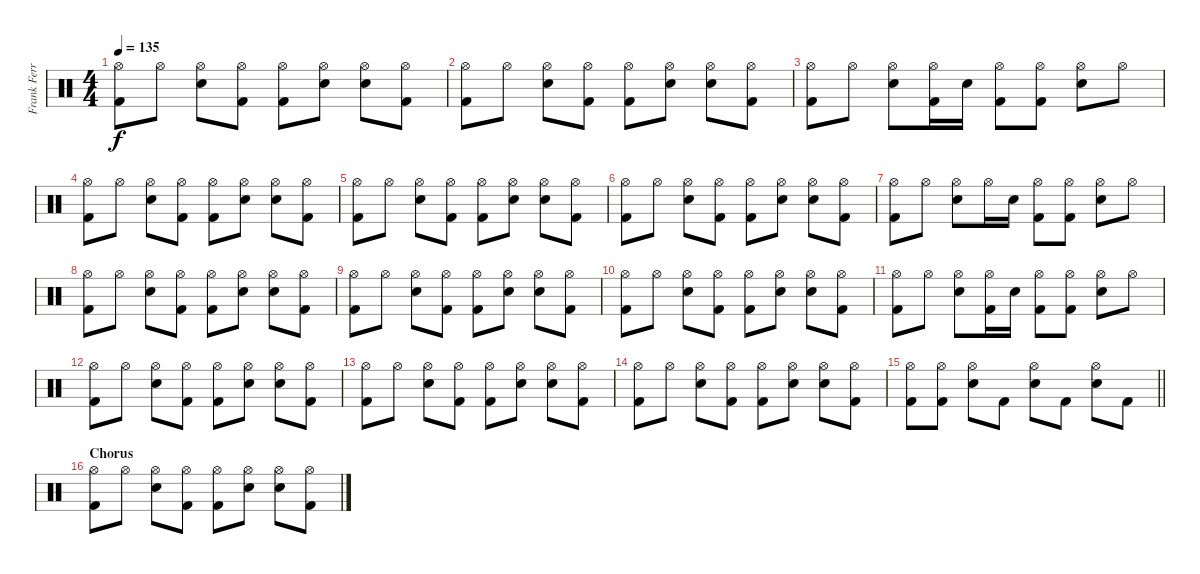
\track ("Frank Ferrer" "Frank Ferr") {instrument percussion}
\staff {score}
\articulation defaults
\ts (4 4)
\tempo 135
\clef neutral
\ks c
("Hi-Hat (open)" "Kick (hit) 2").8{dy f} "Hi-Hat (open)".8 ("Hi-Hat (open)" "Electric Snare (hit)").8 ("Hi-Hat (open)" "Kick (hit) 2").8 ("Hi-Hat (open)" "Kick (hit) 2").8 ("Hi-Hat (open)" "Electric Snare (hit)").8 ("Hi-Hat (open)" "Electric Snare (hit)").8 ("Hi-Hat (open)" "Kick (hit) 2").8 |
("Hi-Hat (open)" "Kick (hit) 2").8 "Hi-Hat (open)".8 ("Hi-Hat (open)" "Electric Snare (hit)").8 ("Hi-Hat (open)" "Kick (hit) 2").8 ("Hi-Hat (open)" "Kick (hit) 2").8 ("Hi-Hat (open)" "Electric Snare (hit)").8 ("Hi-Hat (open)" "Electric Snare (hit)").8 ("Hi-Hat (open)" "Kick (hit) 2").8 |
("Hi-Hat (open)" "Kick (hit) 2").8 "Hi-Hat (open)".8 ("Hi-Hat (open)" "Electric Snare (hit)").8 ("Hi-Hat (open)" "Kick (hit) 2").16 "Electric Snare (hit)".16 ("Hi-Hat (open)" "Kick (hit) 2").8 ("Hi-Hat (open)" "Kick (hit) 2").8 ("Hi-Hat (open)" "Electric Snare (hit)").8 "Hi-Hat (open)".8 |
("Hi-Hat (open)" "Kick (hit) 2").8 "Hi-Hat (open)".8 ("Hi-Hat (open)" "Electric Snare (hit)").8 ("Hi-Hat (open)" "Kick (hit) 2").8 ("Hi-Hat (open)" "Kick (hit) 2").8 ("Hi-Hat (open)" "Electric Snare (hit)").8 ("Hi-Hat (open)" "Electric Snare (hit)").8 ("Hi-Hat (open)" "Kick (hit) 2").8 |
("Hi-Hat (open)" "Kick (hit) 2").8 "Hi-Hat (open)".8 ("Hi-Hat (open)" "Electric Snare (hit)").8 ("Hi-Hat (open)" "Kick (hit) 2").8 ("Hi-Hat (open)" "Kick (hit) 2").8 ("Hi-Hat (open)" "Electric Snare (hit)").8 ("Hi-Hat (open)" "Electric Snare (hit)").8 ("Hi-Hat (open)" "Kick (hit) 2").8 |
("Hi-Hat (open)" "Kick (hit) 2").8 "Hi-Hat (open)".8 ("Hi-Hat (open)" "Electric Snare (hit)").8 ("Hi-Hat (open)" "Kick (hit) 2").8 ("Hi-Hat (open)" "Kick (hit) 2").8 ("Hi-Hat (open)" "Electric Snare (hit)").8 ("Hi-Hat (open)" "Electric Snare (hit)").8 ("Hi-Hat (open)" "Kick (hit) 2").8 |
("Hi-Hat (open)" "Kick (hit) 2").8 "Hi-Hat (open)".8 ("Hi-Hat (open)" "Electric Snare (hit)").8 "Hi-Hat (open)".16 "Electric Snare (hit)".16 ("Hi-Hat (open)" "Kick (hit) 2").8 ("Hi-Hat (open)" "Kick (hit) 2").8 ("Hi-Hat (open)" "Electric Snare (hit)").8 "Hi-Hat (open)".8 |
("Hi-Hat (open)" "Kick (hit) 2").8 "Hi-Hat (open)".8 ("Hi-Hat (open)" "Electric Snare (hit)").8 ("Hi-Hat (open)" "Kick (hit) 2").8 ("Hi-Hat (open)" "Kick (hit) 2").8 ("Hi-Hat (open)" "Electric Snare (hit)").8 ("Hi-Hat (open)" "Electric Snare (hit)").8 ("Hi-Hat (open)" "Kick (hit) 2").8 |
("Hi-Hat (open)" "Kick (hit) 2").8 "Hi-Hat (open)".8 ("Hi-Hat (open)" "Electric Snare (hit)").8 ("Hi-Hat (open)" "Kick (hit) 2").8 ("Hi-Hat (open)" "Kick (hit) 2").8 ("Hi-Hat (open)" "Electric Snare (hit)").8 ("Hi-Hat (open)" "Electric Snare (hit)").8 ("Hi-Hat (open)" "Kick (hit) 2").8 |
("Hi-Hat (open)" "Kick (hit) 2").8 "Hi-Hat (open)".8 ("Hi-Hat (open)" "Electric Snare (hit)").8 ("Hi-Hat (open)" "Kick (hit) 2").8 ("Hi-Hat (open)" "Kick (hit) 2").8 ("Hi-Hat (open)" "Electric Snare (hit)").8 ("Hi-Hat (open)" "Electric Snare (hit)").8 ("Hi-Hat (open)" "Kick (hit) 2").8 |
("Hi-Hat (open)" "Kick (hit) 2").8 "Hi-Hat (open)".8 ("Hi-Hat (open)" "Electric Snare (hit)").8 ("Hi-Hat (open)" "Kick (hit) 2").16 "Electric Snare (hit)".16 ("Hi-Hat (open)" "Kick (hit) 2").8 ("Hi-Hat (open)" "Kick (hit) 2").8 ("Hi-Hat (open)" "Electric Snare (hit)").8 "Hi-Hat (open)".8 |
("Hi-Hat (open)" "Kick (hit) 2").8 "Hi-Hat (open)".8 ("Hi-Hat (open)" "Electric Snare (hit)").8 ("Hi-Hat (open)" "Kick (hit) 2").8 ("Hi-Hat (open)" "Kick (hit) 2").8 ("Hi-Hat (open)" "Electric Snare (hit)").8 ("Hi-Hat (open)" "Electric Snare (hit)").8 ("Hi-Hat (open)" "Kick (hit) 2").8 |
("Hi-Hat (open)" "Kick (hit) 2").8 "Hi-Hat (open)".8 ("Hi-Hat (open)" "Electric Snare (hit)").8 ("Hi-Hat (open)" "Kick (hit) 2").8 ("Hi-Hat (open)" "Kick (hit) 2").8 ("Hi-Hat (open)" "Electric Snare (hit)").8 ("Hi-Hat (open)" "Electric Snare (hit)").8 ("Hi-Hat (open)" "Kick (hit) 2").8 |
("Hi-Hat (open)" "Kick (hit) 2").8 "Hi-Hat (open)".8 ("Hi-Hat (open)" "Electric Snare (hit)").8 ("Hi-Hat (open)" "Kick (hit) 2").8 ("Hi-Hat (open)" "Kick (hit) 2").8 ("Hi-Hat (open)" "Electric Snare (hit)").8 ("Hi-Hat (open)" "Electric Snare (hit)").8 ("Hi-Hat (open)" "Kick (hit) 2").8 |
\barLineRight lightlight
("Hi-Hat (open)" "Kick (hit) 2").8 ("Hi-Hat (open)" "Kick (hit) 2").8 ("Hi-Hat (open)" "Electric Snare (hit)").8 "Kick (hit) 2".8 ("Hi-Hat (open)" "Electric Snare (hit)").8 "Kick (hit) 2".8 ("Hi-Hat (open)" "Electric Snare (hit)").8 "Kick (hit) 2".8 |
\section ("" "Chorus")
("Hi-Hat (open)" "Kick (hit) 2").8 "Hi-Hat (open)".8 ("Hi-Hat (open)" "Electric Snare (hit)").8 ("Hi-Hat (open)" "Kick (hit) 2").8 ("Hi-Hat (open)" "Kick (hit) 2").8 ("Hi-Hat (open)" "Electric Snare (hit)").8 ("Hi-Hat (open)" "Electric Snare (hit)").8 ("Hi-Hat (open)" "Kick (hit) 2").8
